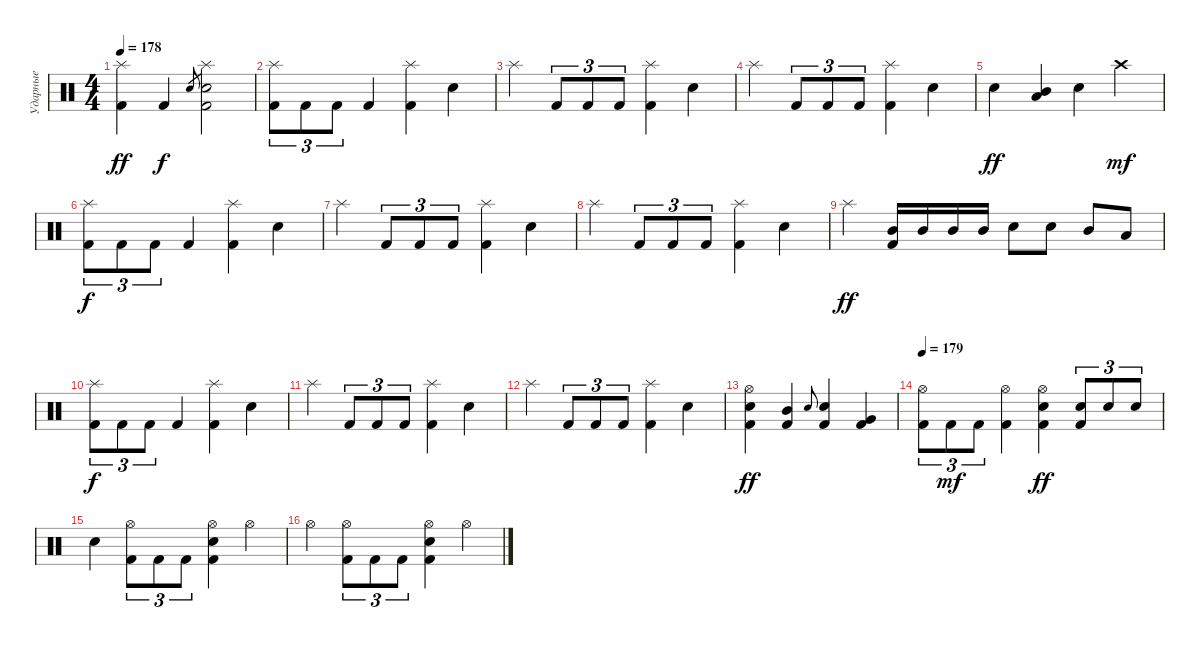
\track ("Ударные" "Ударные") {instrument percussion}
\staff {score}
\articulation defaults
\ts (4 4)
\tempo 178
\clef neutral
\ks c
("Splash (hit)" "Kick (hit) 2").4{dy ff} "Kick (hit) 2".4{dy f} "Electric Snare (hit)"{sl x}.8{gr} ("Splash (hit)" "Electric Snare (hit)" "Kick (hit) 2").2 |
("Splash (hit)" "Kick (hit) 2").8{tu (3 2)} "Kick (hit) 2".8{tu (3 2)} "Kick (hit) 2".8{tu (3 2)} "Kick (hit) 2".4 ("Splash (hit)" "Kick (hit) 2").4 "Electric Snare (hit)".4 |
"Splash (hit)".4 "Kick (hit) 2".8{tu (3 2)} "Kick (hit) 2".8{tu (3 2)} "Kick (hit) 2".8{tu (3 2)} ("Splash (hit)" "Kick (hit) 2").4 "Electric Snare (hit)".4 |
"Splash (hit)".4 "Kick (hit) 2".8{tu (3 2)} "Kick (hit) 2".8{tu (3 2)} "Kick (hit) 2".8{tu (3 2)} ("Splash (hit)" "Kick (hit) 2").4 "Electric Snare (hit)".4 |
"Electric Snare (hit)".4{dy ff} ("Low Tom (hit)" "Mid Tom (hit)").4 "Electric Snare (hit)".4 "Crash high (hit)".4{dy mf} |
("Splash (hit)" "Kick (hit) 2").8{tu (3 2) dy f} "Kick (hit) 2".8{tu (3 2)} "Kick (hit) 2".8{tu (3 2)} "Kick (hit) 2".4 ("Splash (hit)" "Kick (hit) 2").4 "Electric Snare (hit)".4 |
"Splash (hit)".4 "Kick (hit) 2".8{tu (3 2)} "Kick (hit) 2".8{tu (3 2)} "Kick (hit) 2".8{tu (3 2)} ("Splash (hit)" "Kick (hit) 2").4 "Electric Snare (hit)".4 |
"Splash (hit)".4 "Kick (hit) 2".8{tu (3 2)} "Kick (hit) 2".8{tu (3 2)} "Kick (hit) 2".8{tu (3 2)} ("Splash (hit)" "Kick (hit) 2").4 "Electric Snare (hit)".4 |
"Splash (hit)".4{dy ff} ("Mid Tom (hit)" "Kick (hit) 2").16 "Mid Tom (hit)".16 "Mid Tom (hit)".16 "Mid Tom (hit)".16 "Electric Snare (hit)".8 "Electric Snare (hit)".8 "Mid Tom (hit)".8 "Low Tom (hit)".8 |
("Splash (hit)" "Kick (hit) 2").8{tu (3 2) dy f} "Kick (hit) 2".8{tu (3 2)} "Kick (hit) 2".8{tu (3 2)} "Kick (hit) 2".4 ("Splash (hit)" "Kick (hit) 2").4 "Electric Snare (hit)".4 |
"Splash (hit)".4 "Kick (hit) 2".8{tu (3 2)} "Kick (hit) 2".8{tu (3 2)} "Kick (hit) 2".8{tu (3 2)} ("Splash (hit)" "Kick (hit) 2").4 "Electric Snare (hit)".4 |
"Splash (hit)".4 "Kick (hit) 2".8{tu (3 2)} "Kick (hit) 2".8{tu (3 2)} "Kick (hit) 2".8{tu (3 2)} ("Splash (hit)" "Kick (hit) 2").4 "Electric Snare (hit)".4 |
("Hi-Hat (open)" "Electric Snare (hit)" "Kick (hit) 2").4{dy ff} ("Mid Tom (hit)" "Kick (hit) 2").4 "Electric Snare (hit)"{sl x}.8{gr onbeat} ("Electric Snare (hit)" "Kick (hit) 2").4 ("Very Low Tom (hit)" "Kick (hit) 2").4 |
\tempo 179
("Hi-Hat (open)" "Kick (hit) 2").8{tu (3 2)} "Kick (hit) 2".8{tu (3 2) dy mf} "Kick (hit) 2".8{tu (3 2)} ("Hi-Hat (open)" "Kick (hit) 2").4 ("Hi-Hat (open)" "Electric Snare (hit)" "Kick (hit) 2").4{dy ff} ("Electric Snare (hit)" "Kick (hit) 2").8{tu (3 2)} "Electric Snare (hit)".8{tu (3 2)} "Electric Snare (hit)".8{tu (3 2)} |
"Electric Snare (hit)".4 ("Hi-Hat (open)" "Kick (hit) 2").8{tu (3 2)} "Kick (hit) 2".8{tu (3 2)} "Kick (hit) 2".8{tu (3 2)} ("Hi-Hat (open)" "Electric Snare (hit)" "Kick (hit) 2").4 "Hi-Hat (open)".4 |
"Hi-Hat (open)".4 ("Hi-Hat (open)" "Kick (hit) 2").8{tu (3 2)} "Kick (hit) 2".8{tu (3 2)} "Kick (hit) 2".8{tu (3 2)} ("Hi-Hat (open)" "Electric Snare (hit)" "Kick (hit) 2").4 "Hi-Hat (open)".4
